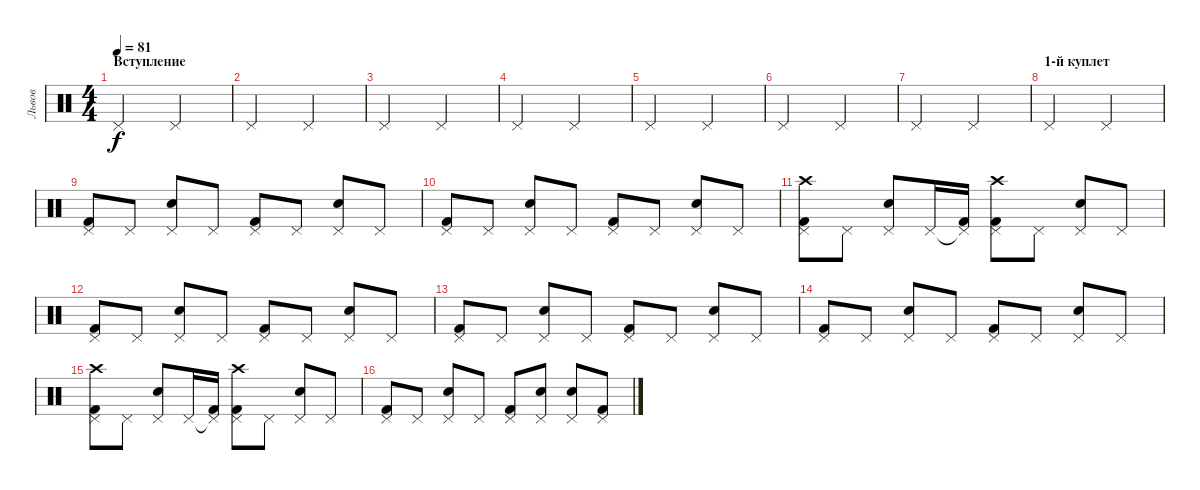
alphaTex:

\track ("Львов" "Львов") {instrument percussion}
\staff {score}
\articulation defaults
\ts (4 4)
\section ("" "Вступление")
\tempo 81
\clef neutral
\ks c "Pedal Hi-Hat (hit)".2{dy f} "Pedal Hi-Hat (hit)".2
|
"Pedal Hi-Hat (hit)".2 "Pedal Hi-Hat (hit)".2 |
"Pedal Hi-Hat (hit)".2 "Pedal Hi-Hat (hit)".2 |
"Pedal Hi-Hat (hit)".2 "Pedal Hi-Hat (hit)".2 |
"Pedal Hi-Hat (hit)".2 "Pedal Hi-Hat (hit)".2 |
"Pedal Hi-Hat (hit)".2 "Pedal Hi-Hat (hit)".2 |
"Pedal Hi-Hat (hit)".2 "Pedal Hi-Hat (hit)".2 |
\section ("" "1-й куплет")
"Pedal Hi-Hat (hit)".2 "Pedal Hi-Hat (hit)".2 |
("Pedal Hi-Hat (hit)" "Kick (hit) 2").8 "Pedal Hi-Hat (hit)".8 ("Pedal Hi-Hat (hit)" "Snare (hit) 2").8 "Pedal Hi-Hat (hit)".8 ("Pedal Hi-Hat (hit)" "Kick (hit) 2").8 "Pedal Hi-Hat (hit)".8 ("Pedal Hi-Hat (hit)" "Snare (hit) 2").8 "Pedal Hi-Hat (hit)".8 |
("Pedal Hi-Hat (hit)" "Kick (hit) 2").8 "Pedal Hi-Hat (hit)".8 ("Pedal Hi-Hat (hit)" "Snare (hit) 2").8 "Pedal Hi-Hat (hit)".8 ("Pedal Hi-Hat (hit)" "Kick (hit) 2").8 "Pedal Hi-Hat (hit)".8 ("Pedal Hi-Hat (hit)" "Snare (hit) 2").8 "Pedal Hi-Hat (hit)".8 |
("Pedal Hi-Hat (hit)" "Crash high (hit)" "Kick (hit) 2").8 "Pedal Hi-Hat (hit)".8 ("Pedal Hi-Hat (hit)" "Snare (hit) 2").8 "Pedal Hi-Hat (hit)".16 ("Pedal Hi-Hat (hit)"{t} "Kick (hit) 2").16 ("Pedal Hi-Hat (hit)" "Crash high (hit)" "Kick (hit) 2").8 "Pedal Hi-Hat (hit)".8 ("Pedal Hi-Hat (hit)" "Snare (hit) 2").8 "Pedal Hi-Hat (hit)".8 |
("Pedal Hi-Hat (hit)" "Kick (hit) 2").8 "Pedal Hi-Hat (hit)".8 ("Pedal Hi-Hat (hit)" "Snare (hit) 2").8 "Pedal Hi-Hat (hit)".8 ("Pedal Hi-Hat (hit)" "Kick (hit) 2").8 "Pedal Hi-Hat (hit)".8 ("Pedal Hi-Hat (hit)" "Snare (hit) 2").8 "Pedal Hi-Hat (hit)".8 |
("Pedal Hi-Hat (hit)" "Kick (hit) 2").8 "Pedal Hi-Hat (hit)".8 ("Pedal Hi-Hat (hit)" "Snare (hit) 2").8 "Pedal Hi-Hat (hit)".8 ("Pedal Hi-Hat (hit)" "Kick (hit) 2").8 "Pedal Hi-Hat (hit)".8 ("Pedal Hi-Hat (hit)" "Snare (hit) 2").8 "Pedal Hi-Hat (hit)".8 |
("Pedal Hi-Hat (hit)" "Kick (hit) 2").8 "Pedal Hi-Hat (hit)".8 ("Pedal Hi-Hat (hit)" "Snare (hit) 2").8 "Pedal Hi-Hat (hit)".8 ("Pedal Hi-Hat (hit)" "Kick (hit) 2").8 "Pedal Hi-Hat (hit)".8 ("Pedal Hi-Hat (hit)" "Snare (hit) 2").8 "Pedal Hi-Hat (hit)".8 |
("Pedal Hi-Hat (hit)" "Crash high (hit)" "Kick (hit) 2").8 "Pedal Hi-Hat (hit)".8 ("Pedal Hi-Hat (hit)" "Snare (hit) 2").8 "Pedal Hi-Hat (hit)".16 ("Pedal Hi-Hat (hit)"{t} "Kick (hit) 2").16 ("Pedal Hi-Hat (hit)" "Crash high (hit)" "Kick (hit) 2").8 "Pedal Hi-Hat (hit)".8 ("Pedal Hi-Hat (hit)" "Snare (hit) 2").8 "Pedal Hi-Hat (hit)".8 |
("Pedal Hi-Hat (hit)" "Kick (hit) 2").8 "Pedal Hi-Hat (hit)".8 ("Pedal Hi-Hat (hit)" "Snare (hit) 2").8 "Pedal Hi-Hat (hit)".8 ("Pedal Hi-Hat (hit)" "Kick (hit) 2").8 ("Pedal Hi-Hat (hit)" "Snare (hit) 2").8 ("Pedal Hi-Hat (hit)" "Snare (hit) 2").8 ("Pedal Hi-Hat (hit)" "Kick (hit) 2").8
